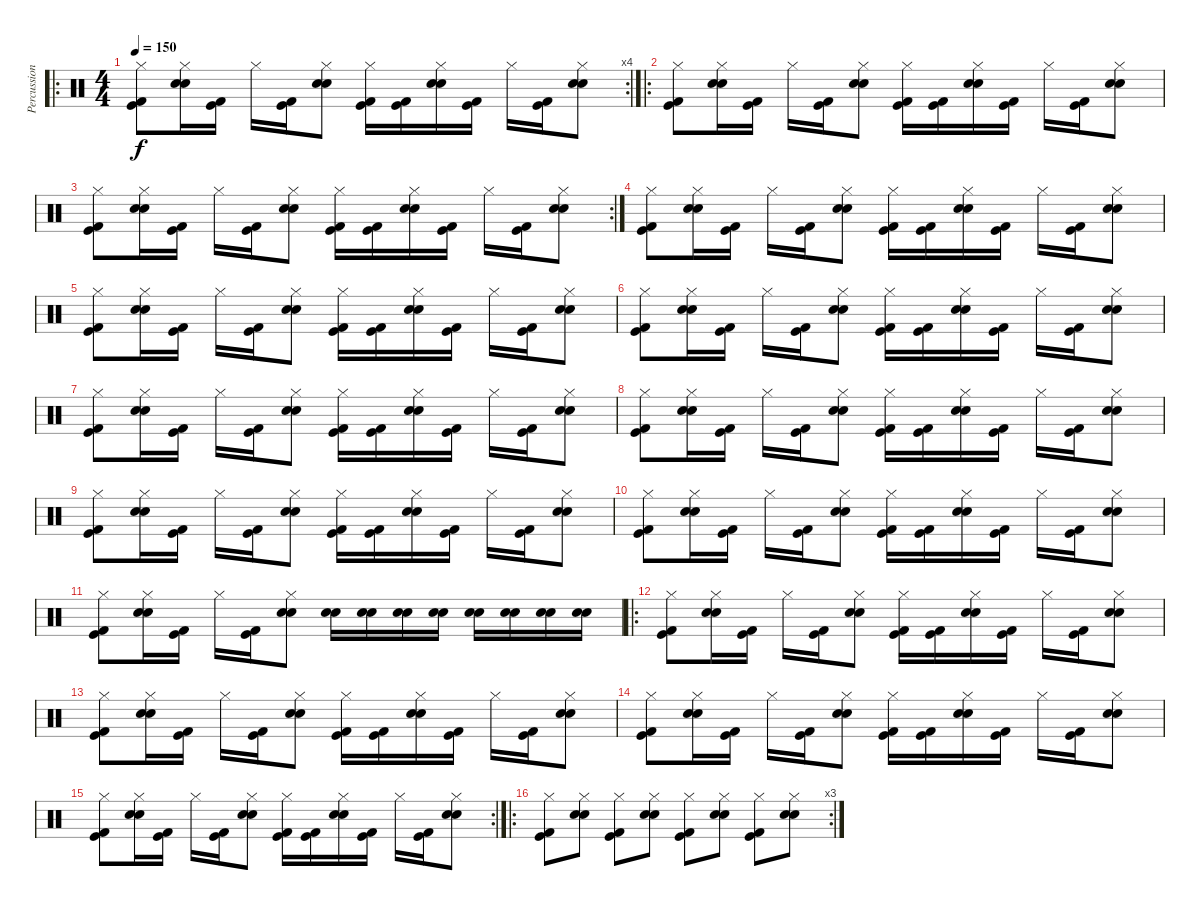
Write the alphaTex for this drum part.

\track ("Percussions" "Percussion") {instrument percussion}
\staff {score}
\articulation defaults
\ro
\rc 4
\ts (4 4)
\tempo 150
\clef neutral
\ks c
("Hi-Hat (closed)" "Kick (hit)" "Kick (hit) 2").8{dy f} ("Hi-Hat (closed)" "Snare (hit) 2" "Electric Snare (hit)").16 ("Kick (hit)" "Kick (hit) 2").16 "Hi-Hat (closed)".16 ("Kick (hit)" "Kick (hit) 2").16 ("Hi-Hat (closed)" "Snare (hit) 2" "Electric Snare (hit)").8 ("Hi-Hat (closed)" "Kick (hit)" "Kick (hit) 2").16 ("Kick (hit)" "Kick (hit) 2").16 ("Hi-Hat (closed)" "Snare (hit) 2" "Electric Snare (hit)").16 ("Kick (hit)" "Kick (hit) 2").16 "Hi-Hat (closed)".16 ("Kick (hit)" "Kick (hit) 2").16 ("Hi-Hat (closed)" "Snare (hit) 2" "Electric Snare (hit)").8 |
\ro
("Hi-Hat (closed)" "Kick (hit)" "Kick (hit) 2").8 ("Hi-Hat (closed)" "Snare (hit) 2" "Electric Snare (hit)").16 ("Kick (hit)" "Kick (hit) 2").16 "Hi-Hat (closed)".16 ("Kick (hit)" "Kick (hit) 2").16 ("Hi-Hat (closed)" "Snare (hit) 2" "Electric Snare (hit)").8 ("Hi-Hat (closed)" "Kick (hit)" "Kick (hit) 2").16 ("Kick (hit)" "Kick (hit) 2").16 ("Hi-Hat (closed)" "Snare (hit) 2" "Electric Snare (hit)").16 ("Kick (hit)" "Kick (hit) 2").16 "Hi-Hat (closed)".16 ("Kick (hit)" "Kick (hit) 2").16 ("Hi-Hat (closed)" "Snare (hit) 2" "Electric Snare (hit)").8 |
\rc 2
("Hi-Hat (closed)" "Kick (hit)" "Kick (hit) 2").8 ("Hi-Hat (closed)" "Snare (hit) 2" "Electric Snare (hit)").16 ("Kick (hit)" "Kick (hit) 2").16 "Hi-Hat (closed)".16 ("Kick (hit)" "Kick (hit) 2").16 ("Hi-Hat (closed)" "Snare (hit) 2" "Electric Snare (hit)").8 ("Hi-Hat (closed)" "Kick (hit)" "Kick (hit) 2").16 ("Kick (hit)" "Kick (hit) 2").16 ("Hi-Hat (closed)" "Snare (hit) 2" "Electric Snare (hit)").16 ("Kick (hit)" "Kick (hit) 2").16 "Hi-Hat (closed)".16 ("Kick (hit)" "Kick (hit) 2").16 ("Hi-Hat (closed)" "Snare (hit) 2" "Electric Snare (hit)").8 |
("Hi-Hat (closed)" "Kick (hit)" "Kick (hit) 2").8 ("Hi-Hat (closed)" "Snare (hit) 2" "Electric Snare (hit)").16 ("Kick (hit)" "Kick (hit) 2").16 "Hi-Hat (closed)".16 ("Kick (hit)" "Kick (hit) 2").16 ("Hi-Hat (closed)" "Snare (hit) 2" "Electric Snare (hit)").8 ("Hi-Hat (closed)" "Kick (hit)" "Kick (hit) 2").16 ("Kick (hit)" "Kick (hit) 2").16 ("Hi-Hat (closed)" "Snare (hit) 2" "Electric Snare (hit)").16 ("Kick (hit)" "Kick (hit) 2").16 "Hi-Hat (closed)".16 ("Kick (hit)" "Kick (hit) 2").16 ("Hi-Hat (closed)" "Snare (hit) 2" "Electric Snare (hit)").8 |
("Hi-Hat (closed)" "Kick (hit)" "Kick (hit) 2").8 ("Hi-Hat (closed)" "Snare (hit) 2" "Electric Snare (hit)").16 ("Kick (hit)" "Kick (hit) 2").16 "Hi-Hat (closed)".16 ("Kick (hit)" "Kick (hit) 2").16 ("Hi-Hat (closed)" "Snare (hit) 2" "Electric Snare (hit)").8 ("Hi-Hat (closed)" "Kick (hit)" "Kick (hit) 2").16 ("Kick (hit)" "Kick (hit) 2").16 ("Hi-Hat (closed)" "Snare (hit) 2" "Electric Snare (hit)").16 ("Kick (hit)" "Kick (hit) 2").16 "Hi-Hat (closed)".16 ("Kick (hit)" "Kick (hit) 2").16 ("Hi-Hat (closed)" "Snare (hit) 2" "Electric Snare (hit)").8 |
("Hi-Hat (closed)" "Kick (hit)" "Kick (hit) 2").8 ("Hi-Hat (closed)" "Snare (hit) 2" "Electric Snare (hit)").16 ("Kick (hit)" "Kick (hit) 2").16 "Hi-Hat (closed)".16 ("Kick (hit)" "Kick (hit) 2").16 ("Hi-Hat (closed)" "Snare (hit) 2" "Electric Snare (hit)").8 ("Hi-Hat (closed)" "Kick (hit)" "Kick (hit) 2").16 ("Kick (hit)" "Kick (hit) 2").16 ("Hi-Hat (closed)" "Snare (hit) 2" "Electric Snare (hit)").16 ("Kick (hit)" "Kick (hit) 2").16 "Hi-Hat (closed)".16 ("Kick (hit)" "Kick (hit) 2").16 ("Hi-Hat (closed)" "Snare (hit) 2" "Electric Snare (hit)").8 |
("Hi-Hat (closed)" "Kick (hit)" "Kick (hit) 2").8 ("Hi-Hat (closed)" "Snare (hit) 2" "Electric Snare (hit)").16 ("Kick (hit)" "Kick (hit) 2").16 "Hi-Hat (closed)".16 ("Kick (hit)" "Kick (hit) 2").16 ("Hi-Hat (closed)" "Snare (hit) 2" "Electric Snare (hit)").8 ("Hi-Hat (closed)" "Kick (hit)" "Kick (hit) 2").16 ("Kick (hit)" "Kick (hit) 2").16 ("Hi-Hat (closed)" "Snare (hit) 2" "Electric Snare (hit)").16 ("Kick (hit)" "Kick (hit) 2").16 "Hi-Hat (closed)".16 ("Kick (hit)" "Kick (hit) 2").16 ("Hi-Hat (closed)" "Snare (hit) 2" "Electric Snare (hit)").8 |
("Hi-Hat (closed)" "Kick (hit)" "Kick (hit) 2").8 ("Hi-Hat (closed)" "Snare (hit) 2" "Electric Snare (hit)").16 ("Kick (hit)" "Kick (hit) 2").16 "Hi-Hat (closed)".16 ("Kick (hit)" "Kick (hit) 2").16 ("Hi-Hat (closed)" "Snare (hit) 2" "Electric Snare (hit)").8 ("Hi-Hat (closed)" "Kick (hit)" "Kick (hit) 2").16 ("Kick (hit)" "Kick (hit) 2").16 ("Hi-Hat (closed)" "Snare (hit) 2" "Electric Snare (hit)").16 ("Kick (hit)" "Kick (hit) 2").16 "Hi-Hat (closed)".16 ("Kick (hit)" "Kick (hit) 2").16 ("Hi-Hat (closed)" "Snare (hit) 2" "Electric Snare (hit)").8 |
("Hi-Hat (closed)" "Kick (hit)" "Kick (hit) 2").8 ("Hi-Hat (closed)" "Snare (hit) 2" "Electric Snare (hit)").16 ("Kick (hit)" "Kick (hit) 2").16 "Hi-Hat (closed)".16 ("Kick (hit)" "Kick (hit) 2").16 ("Hi-Hat (closed)" "Snare (hit) 2" "Electric Snare (hit)").8 ("Hi-Hat (closed)" "Kick (hit)" "Kick (hit) 2").16 ("Kick (hit)" "Kick (hit) 2").16 ("Hi-Hat (closed)" "Snare (hit) 2" "Electric Snare (hit)").16 ("Kick (hit)" "Kick (hit) 2").16 "Hi-Hat (closed)".16 ("Kick (hit)" "Kick (hit) 2").16 ("Hi-Hat (closed)" "Snare (hit) 2" "Electric Snare (hit)").8 |
("Hi-Hat (closed)" "Kick (hit)" "Kick (hit) 2").8 ("Hi-Hat (closed)" "Snare (hit) 2" "Electric Snare (hit)").16 ("Kick (hit)" "Kick (hit) 2").16 "Hi-Hat (closed)".16 ("Kick (hit)" "Kick (hit) 2").16 ("Hi-Hat (closed)" "Snare (hit) 2" "Electric Snare (hit)").8 ("Hi-Hat (closed)" "Kick (hit)" "Kick (hit) 2").16 ("Kick (hit)" "Kick (hit) 2").16 ("Hi-Hat (closed)" "Snare (hit) 2" "Electric Snare (hit)").16 ("Kick (hit)" "Kick (hit) 2").16 "Hi-Hat (closed)".16 ("Kick (hit)" "Kick (hit) 2").16 ("Hi-Hat (closed)" "Snare (hit) 2" "Electric Snare (hit)").8 |
("Hi-Hat (closed)" "Kick (hit)" "Kick (hit) 2").8 ("Hi-Hat (closed)" "Snare (hit) 2" "Electric Snare (hit)").16 ("Kick (hit)" "Kick (hit) 2").16 "Hi-Hat (closed)".16 ("Kick (hit)" "Kick (hit) 2").16 ("Hi-Hat (closed)" "Snare (hit) 2" "Electric Snare (hit)").8 ("Snare (hit) 2" "Electric Snare (hit)").16 ("Snare (hit) 2" "Electric Snare (hit)").16 ("Snare (hit) 2" "Electric Snare (hit)").16 ("Snare (hit) 2" "Electric Snare (hit)").16 ("Snare (hit) 2" "Electric Snare (hit)").16 ("Snare (hit) 2" "Electric Snare (hit)").16 ("Snare (hit) 2" "Electric Snare (hit)").16 ("Snare (hit) 2" "Electric Snare (hit)").16 |
\ro
("Hi-Hat (closed)" "Kick (hit)" "Kick (hit) 2").8 ("Hi-Hat (closed)" "Snare (hit) 2" "Electric Snare (hit)").16 ("Kick (hit)" "Kick (hit) 2").16 "Hi-Hat (closed)".16 ("Kick (hit)" "Kick (hit) 2").16 ("Hi-Hat (closed)" "Snare (hit) 2" "Electric Snare (hit)").8 ("Hi-Hat (closed)" "Kick (hit)" "Kick (hit) 2").16 ("Kick (hit)" "Kick (hit) 2").16 ("Hi-Hat (closed)" "Snare (hit) 2" "Electric Snare (hit)").16 ("Kick (hit)" "Kick (hit) 2").16 "Hi-Hat (closed)".16 ("Kick (hit)" "Kick (hit) 2").16 ("Hi-Hat (closed)" "Snare (hit) 2" "Electric Snare (hit)").8 |
("Hi-Hat (closed)" "Kick (hit)" "Kick (hit) 2").8 ("Hi-Hat (closed)" "Snare (hit) 2" "Electric Snare (hit)").16 ("Kick (hit)" "Kick (hit) 2").16 "Hi-Hat (closed)".16 ("Kick (hit)" "Kick (hit) 2").16 ("Hi-Hat (closed)" "Snare (hit) 2" "Electric Snare (hit)").8 ("Hi-Hat (closed)" "Kick (hit)" "Kick (hit) 2").16 ("Kick (hit)" "Kick (hit) 2").16 ("Hi-Hat (closed)" "Snare (hit) 2" "Electric Snare (hit)").16 ("Kick (hit)" "Kick (hit) 2").16 "Hi-Hat (closed)".16 ("Kick (hit)" "Kick (hit) 2").16 ("Hi-Hat (closed)" "Snare (hit) 2" "Electric Snare (hit)").8 |
("Hi-Hat (closed)" "Kick (hit)" "Kick (hit) 2").8 ("Hi-Hat (closed)" "Snare (hit) 2" "Electric Snare (hit)").16 ("Kick (hit)" "Kick (hit) 2").16 "Hi-Hat (closed)".16 ("Kick (hit)" "Kick (hit) 2").16 ("Hi-Hat (closed)" "Snare (hit) 2" "Electric Snare (hit)").8 ("Hi-Hat (closed)" "Kick (hit)" "Kick (hit) 2").16 ("Kick (hit)" "Kick (hit) 2").16 ("Hi-Hat (closed)" "Snare (hit) 2" "Electric Snare (hit)").16 ("Kick (hit)" "Kick (hit) 2").16 "Hi-Hat (closed)".16 ("Kick (hit)" "Kick (hit) 2").16 ("Hi-Hat (closed)" "Snare (hit) 2" "Electric Snare (hit)").8 |
\rc 2
("Hi-Hat (closed)" "Kick (hit)" "Kick (hit) 2").8 ("Hi-Hat (closed)" "Snare (hit) 2" "Electric Snare (hit)").16 ("Kick (hit)" "Kick (hit) 2").16 "Hi-Hat (closed)".16 ("Kick (hit)" "Kick (hit) 2").16 ("Hi-Hat (closed)" "Snare (hit) 2" "Electric Snare (hit)").8 ("Hi-Hat (closed)" "Kick (hit)" "Kick (hit) 2").16 ("Kick (hit)" "Kick (hit) 2").16 ("Hi-Hat (closed)" "Snare (hit) 2" "Electric Snare (hit)").16 ("Kick (hit)" "Kick (hit) 2").16 "Hi-Hat (closed)".16 ("Kick (hit)" "Kick (hit) 2").16 ("Hi-Hat (closed)" "Snare (hit) 2" "Electric Snare (hit)").8 |
\ro
\rc 3
("Hi-Hat (closed)" "Kick (hit)" "Kick (hit) 2").8 ("Hi-Hat (closed)" "Snare (hit) 2" "Electric Snare (hit)").8 ("Hi-Hat (closed)" "Kick (hit)" "Kick (hit) 2").8 ("Hi-Hat (closed)" "Snare (hit) 2" "Electric Snare (hit)").8 ("Hi-Hat (closed)" "Kick (hit)" "Kick (hit) 2").8 ("Hi-Hat (closed)" "Snare (hit) 2" "Electric Snare (hit)").8 ("Hi-Hat (closed)" "Kick (hit)" "Kick (hit) 2").8 ("Hi-Hat (closed)" "Snare (hit) 2" "Electric Snare (hit)").8
